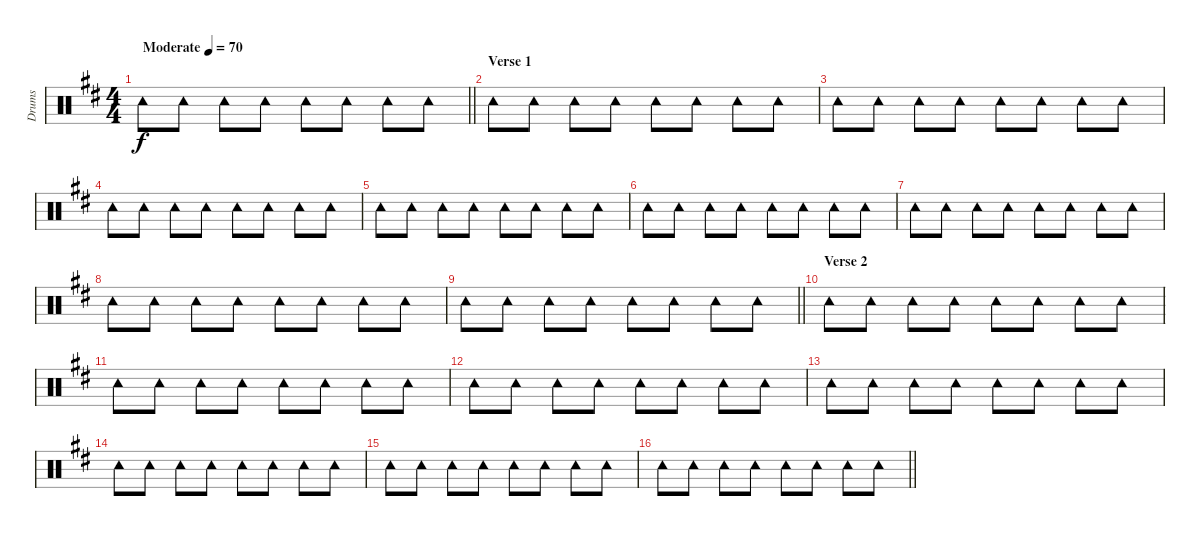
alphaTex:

\track ("Drums" "Drums") {instrument percussion}
\staff {score}
\articulation defaults
\ts (4 4)
\tempo (70 "Moderate")
\clef neutral
\barLineRight lightlight
\ks bminor "Tambourine (hit)".8{dy f} "Tambourine (hit)".8 "Tambourine (hit)".8 "Tambourine (hit)".8 "Tambourine (hit)".8 "Tambourine (hit)".8 "Tambourine (hit)".8 "Tambourine (hit)".8
|
\section ("" "Verse 1")
"Tambourine (hit)".8 "Tambourine (hit)".8 "Tambourine (hit)".8 "Tambourine (hit)".8 "Tambourine (hit)".8 "Tambourine (hit)".8 "Tambourine (hit)".8 "Tambourine (hit)".8 |
"Tambourine (hit)".8 "Tambourine (hit)".8 "Tambourine (hit)".8 "Tambourine (hit)".8 "Tambourine (hit)".8 "Tambourine (hit)".8 "Tambourine (hit)".8 "Tambourine (hit)".8 |
"Tambourine (hit)".8 "Tambourine (hit)".8 "Tambourine (hit)".8 "Tambourine (hit)".8 "Tambourine (hit)".8 "Tambourine (hit)".8 "Tambourine (hit)".8 "Tambourine (hit)".8 |
"Tambourine (hit)".8 "Tambourine (hit)".8 "Tambourine (hit)".8 "Tambourine (hit)".8 "Tambourine (hit)".8 "Tambourine (hit)".8 "Tambourine (hit)".8 "Tambourine (hit)".8 |
"Tambourine (hit)".8 "Tambourine (hit)".8 "Tambourine (hit)".8 "Tambourine (hit)".8 "Tambourine (hit)".8 "Tambourine (hit)".8 "Tambourine (hit)".8 "Tambourine (hit)".8 |
"Tambourine (hit)".8 "Tambourine (hit)".8 "Tambourine (hit)".8 "Tambourine (hit)".8 "Tambourine (hit)".8 "Tambourine (hit)".8 "Tambourine (hit)".8 "Tambourine (hit)".8 |
"Tambourine (hit)".8 "Tambourine (hit)".8 "Tambourine (hit)".8 "Tambourine (hit)".8 "Tambourine (hit)".8 "Tambourine (hit)".8 "Tambourine (hit)".8 "Tambourine (hit)".8 |
\barLineRight lightlight "Tambourine (hit)".8 "Tambourine (hit)".8 "Tambourine (hit)".8 "Tambourine (hit)".8 "Tambourine (hit)".8 "Tambourine (hit)".8 "Tambourine (hit)".8 "Tambourine (hit)".8
|
\section ("" "Verse 2")
"Tambourine (hit)".8 "Tambourine (hit)".8 "Tambourine (hit)".8 "Tambourine (hit)".8 "Tambourine (hit)".8 "Tambourine (hit)".8 "Tambourine (hit)".8 "Tambourine (hit)".8 |
"Tambourine (hit)".8 "Tambourine (hit)".8 "Tambourine (hit)".8 "Tambourine (hit)".8 "Tambourine (hit)".8 "Tambourine (hit)".8 "Tambourine (hit)".8 "Tambourine (hit)".8 |
"Tambourine (hit)".8 "Tambourine (hit)".8 "Tambourine (hit)".8 "Tambourine (hit)".8 "Tambourine (hit)".8 "Tambourine (hit)".8 "Tambourine (hit)".8 "Tambourine (hit)".8 |
"Tambourine (hit)".8 "Tambourine (hit)".8 "Tambourine (hit)".8 "Tambourine (hit)".8 "Tambourine (hit)".8 "Tambourine (hit)".8 "Tambourine (hit)".8 "Tambourine (hit)".8 |
"Tambourine (hit)".8 "Tambourine (hit)".8 "Tambourine (hit)".8 "Tambourine (hit)".8 "Tambourine (hit)".8 "Tambourine (hit)".8 "Tambourine (hit)".8 "Tambourine (hit)".8 |
"Tambourine (hit)".8 "Tambourine (hit)".8 "Tambourine (hit)".8 "Tambourine (hit)".8 "Tambourine (hit)".8 "Tambourine (hit)".8 "Tambourine (hit)".8 "Tambourine (hit)".8 |
\barLineRight lightlight "Tambourine (hit)".8 "Tambourine (hit)".8 "Tambourine (hit)".8 "Tambourine (hit)".8 "Tambourine (hit)".8 "Tambourine (hit)".8 "Tambourine (hit)".8 "Tambourine (hit)".8
